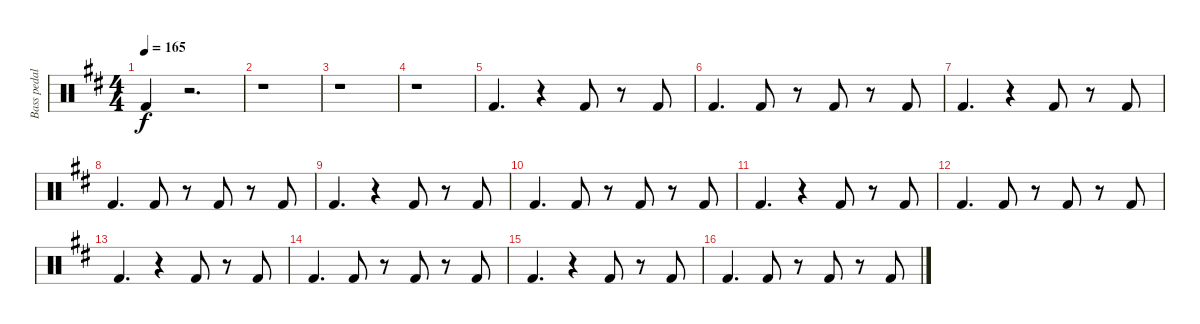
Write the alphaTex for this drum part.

\track ("Bass pedal" "Bass pedal") {instrument percussion}
\staff {score}
\articulation defaults
\ts (4 4)
\tempo 165
\clef neutral
\ks d "Kick (hit) 2".4{dy f}
r.2{d} |
r.1 |
r.1 |
r.1 |
"Kick (hit) 2".4{d} r.4 "Kick (hit) 2".8 r.8 "Kick (hit) 2".8 |
"Kick (hit) 2".4{d} "Kick (hit) 2".8 r.8 "Kick (hit) 2".8 r.8 "Kick (hit) 2".8 |
"Kick (hit) 2".4{d} r.4 "Kick (hit) 2".8 r.8 "Kick (hit) 2".8 |
"Kick (hit) 2".4{d} "Kick (hit) 2".8 r.8 "Kick (hit) 2".8 r.8 "Kick (hit) 2".8 |
"Kick (hit) 2".4{d} r.4 "Kick (hit) 2".8 r.8 "Kick (hit) 2".8 |
"Kick (hit) 2".4{d} "Kick (hit) 2".8 r.8 "Kick (hit) 2".8 r.8 "Kick (hit) 2".8 |
"Kick (hit) 2".4{d} r.4 "Kick (hit) 2".8 r.8 "Kick (hit) 2".8 |
"Kick (hit) 2".4{d} "Kick (hit) 2".8 r.8 "Kick (hit) 2".8 r.8 "Kick (hit) 2".8 |
"Kick (hit) 2".4{d} r.4 "Kick (hit) 2".8 r.8 "Kick (hit) 2".8 |
"Kick (hit) 2".4{d} "Kick (hit) 2".8 r.8 "Kick (hit) 2".8 r.8 "Kick (hit) 2".8 |
"Kick (hit) 2".4{d} r.4 "Kick (hit) 2".8 r.8 "Kick (hit) 2".8 |
"Kick (hit) 2".4{d} "Kick (hit) 2".8 r.8 "Kick (hit) 2".8 r.8 "Kick (hit) 2".8
